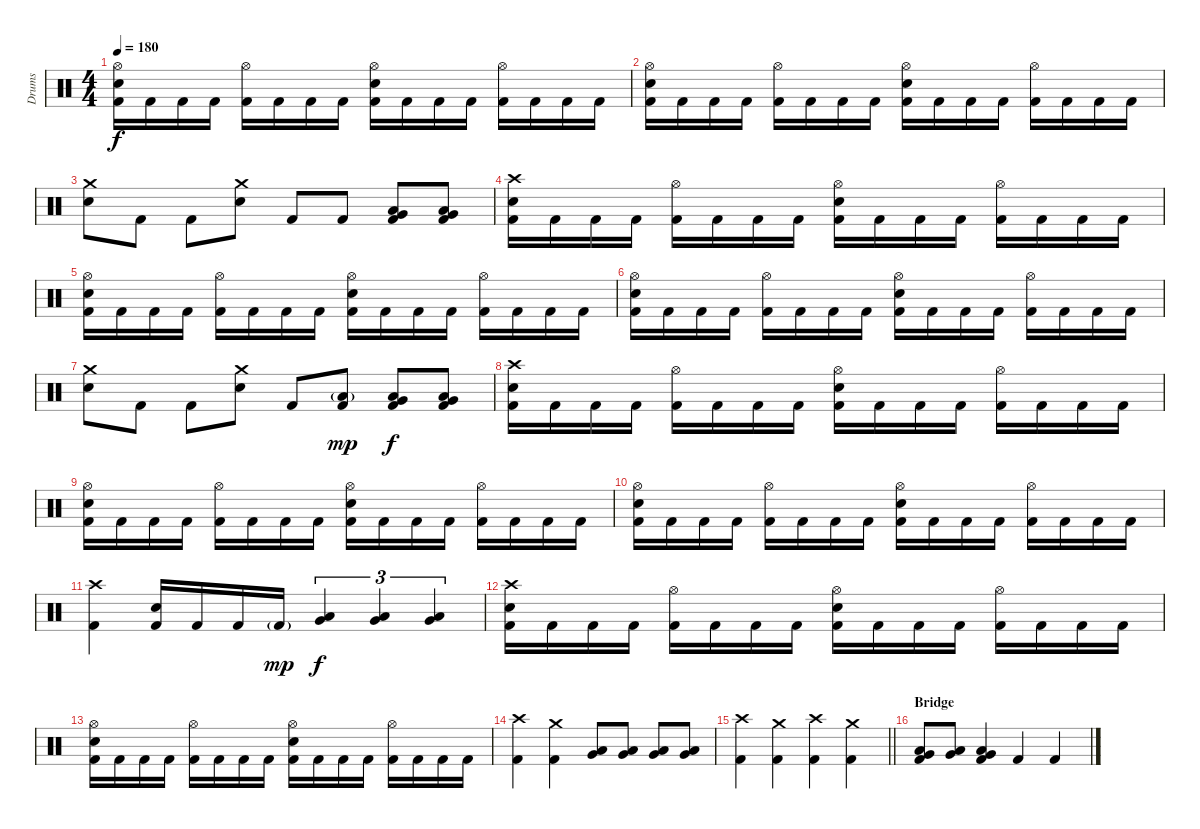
\track ("Drums" "Drums") {instrument percussion}
\staff {score}
\articulation defaults
\ts (4 4)
\tempo 180
\clef neutral
\ks c
("Hi-Hat (open)" "Electric Snare (hit)" "Kick (hit) 2").16{dy f} "Kick (hit) 2".16 "Kick (hit) 2".16 "Kick (hit) 2".16 ("Hi-Hat (open)" "Kick (hit) 2").16 "Kick (hit) 2".16 "Kick (hit) 2".16 "Kick (hit) 2".16 ("Hi-Hat (open)" "Electric Snare (hit)" "Kick (hit) 2").16 "Kick (hit) 2".16 "Kick (hit) 2".16 "Kick (hit) 2".16 ("Hi-Hat (open)" "Kick (hit) 2").16 "Kick (hit) 2".16 "Kick (hit) 2".16 "Kick (hit) 2".16 |
("Hi-Hat (open)" "Electric Snare (hit)" "Kick (hit) 2").16 "Kick (hit) 2".16 "Kick (hit) 2".16 "Kick (hit) 2".16 ("Hi-Hat (open)" "Kick (hit) 2").16 "Kick (hit) 2".16 "Kick (hit) 2".16 "Kick (hit) 2".16 ("Hi-Hat (open)" "Electric Snare (hit)" "Kick (hit) 2").16 "Kick (hit) 2".16 "Kick (hit) 2".16 "Kick (hit) 2".16 ("Hi-Hat (open)" "Kick (hit) 2").16 "Kick (hit) 2".16 "Kick (hit) 2".16 "Kick (hit) 2".16 |
("Crash medium (hit)" "Electric Snare (hit)").8 "Kick (hit) 2".8 "Kick (hit) 2".8 ("Crash medium (hit)" "Electric Snare (hit)").8 "Kick (hit) 2".8 "Kick (hit) 2".8 ("Low Tom (hit)" "Very Low Tom (hit)" "Kick (hit) 2").8 ("Very Low Tom (hit)" "Low Floor Tom (hit)" "Kick (hit) 2").8 |
("Crash high (hit)" "Electric Snare (hit)" "Kick (hit) 2").16 "Kick (hit) 2".16 "Kick (hit) 2".16 "Kick (hit) 2".16 ("Hi-Hat (open)" "Kick (hit) 2").16 "Kick (hit) 2".16 "Kick (hit) 2".16 "Kick (hit) 2".16 ("Hi-Hat (open)" "Electric Snare (hit)" "Kick (hit) 2").16 "Kick (hit) 2".16 "Kick (hit) 2".16 "Kick (hit) 2".16 ("Hi-Hat (open)" "Kick (hit) 2").16 "Kick (hit) 2".16 "Kick (hit) 2".16 "Kick (hit) 2".16 |
("Hi-Hat (open)" "Electric Snare (hit)" "Kick (hit) 2").16 "Kick (hit) 2".16 "Kick (hit) 2".16 "Kick (hit) 2".16 ("Hi-Hat (open)" "Kick (hit) 2").16 "Kick (hit) 2".16 "Kick (hit) 2".16 "Kick (hit) 2".16 ("Hi-Hat (open)" "Electric Snare (hit)" "Kick (hit) 2").16 "Kick (hit) 2".16 "Kick (hit) 2".16 "Kick (hit) 2".16 ("Hi-Hat (open)" "Kick (hit) 2").16 "Kick (hit) 2".16 "Kick (hit) 2".16 "Kick (hit) 2".16 |
("Hi-Hat (open)" "Electric Snare (hit)" "Kick (hit) 2").16 "Kick (hit) 2".16 "Kick (hit) 2".16 "Kick (hit) 2".16 ("Hi-Hat (open)" "Kick (hit) 2").16 "Kick (hit) 2".16 "Kick (hit) 2".16 "Kick (hit) 2".16 ("Hi-Hat (open)" "Electric Snare (hit)" "Kick (hit) 2").16 "Kick (hit) 2".16 "Kick (hit) 2".16 "Kick (hit) 2".16 ("Hi-Hat (open)" "Kick (hit) 2").16 "Kick (hit) 2".16 "Kick (hit) 2".16 "Kick (hit) 2".16 |
("Crash medium (hit)" "Electric Snare (hit)").8 "Kick (hit) 2".8 "Kick (hit) 2".8 ("Crash medium (hit)" "Electric Snare (hit)").8 "Kick (hit) 2".8 ("Low Tom (hit)"{g} "Kick (hit) 2").8{dy mp} ("Low Tom (hit)" "Very Low Tom (hit)" "Kick (hit) 2").8{dy f} ("Very Low Tom (hit)" "Low Floor Tom (hit)" "Kick (hit) 2").8 |
("Crash high (hit)" "Electric Snare (hit)" "Kick (hit) 2").16 "Kick (hit) 2".16 "Kick (hit) 2".16 "Kick (hit) 2".16 ("Hi-Hat (open)" "Kick (hit) 2").16 "Kick (hit) 2".16 "Kick (hit) 2".16 "Kick (hit) 2".16 ("Hi-Hat (open)" "Electric Snare (hit)" "Kick (hit) 2").16 "Kick (hit) 2".16 "Kick (hit) 2".16 "Kick (hit) 2".16 ("Hi-Hat (open)" "Kick (hit) 2").16 "Kick (hit) 2".16 "Kick (hit) 2".16 "Kick (hit) 2".16 |
("Hi-Hat (open)" "Electric Snare (hit)" "Kick (hit) 2").16 "Kick (hit) 2".16 "Kick (hit) 2".16 "Kick (hit) 2".16 ("Hi-Hat (open)" "Kick (hit) 2").16 "Kick (hit) 2".16 "Kick (hit) 2".16 "Kick (hit) 2".16 ("Hi-Hat (open)" "Electric Snare (hit)" "Kick (hit) 2").16 "Kick (hit) 2".16 "Kick (hit) 2".16 "Kick (hit) 2".16 ("Hi-Hat (open)" "Kick (hit) 2").16 "Kick (hit) 2".16 "Kick (hit) 2".16 "Kick (hit) 2".16 |
("Hi-Hat (open)" "Electric Snare (hit)" "Kick (hit) 2").16 "Kick (hit) 2".16 "Kick (hit) 2".16 "Kick (hit) 2".16 ("Hi-Hat (open)" "Kick (hit) 2").16 "Kick (hit) 2".16 "Kick (hit) 2".16 "Kick (hit) 2".16 ("Hi-Hat (open)" "Electric Snare (hit)" "Kick (hit) 2").16 "Kick (hit) 2".16 "Kick (hit) 2".16 "Kick (hit) 2".16 ("Hi-Hat (open)" "Kick (hit) 2").16 "Kick (hit) 2".16 "Kick (hit) 2".16 "Kick (hit) 2".16 |
("Crash high (hit)" "Kick (hit) 2").4 ("Electric Snare (hit)" "Kick (hit) 2").16 "Kick (hit) 2".16 "Kick (hit) 2".16 "Kick (hit) 2"{g}.16{dy mp} ("Low Tom (hit)" "Very Low Tom (hit)").4{tu (3 2) dy f} ("Low Tom (hit)" "Very Low Tom (hit)").4{tu (3 2)} ("Very Low Tom (hit)" "Low Floor Tom (hit)").4{tu (3 2)} |
("Crash high (hit)" "Electric Snare (hit)" "Kick (hit) 2").16 "Kick (hit) 2".16 "Kick (hit) 2".16 "Kick (hit) 2".16 ("Hi-Hat (open)" "Kick (hit) 2").16 "Kick (hit) 2".16 "Kick (hit) 2".16 "Kick (hit) 2".16 ("Hi-Hat (open)" "Electric Snare (hit)" "Kick (hit) 2").16 "Kick (hit) 2".16 "Kick (hit) 2".16 "Kick (hit) 2".16 ("Hi-Hat (open)" "Kick (hit) 2").16 "Kick (hit) 2".16 "Kick (hit) 2".16 "Kick (hit) 2".16 |
("Hi-Hat (open)" "Electric Snare (hit)" "Kick (hit) 2").16 "Kick (hit) 2".16 "Kick (hit) 2".16 "Kick (hit) 2".16 ("Hi-Hat (open)" "Kick (hit) 2").16 "Kick (hit) 2".16 "Kick (hit) 2".16 "Kick (hit) 2".16 ("Hi-Hat (open)" "Electric Snare (hit)" "Kick (hit) 2").16 "Kick (hit) 2".16 "Kick (hit) 2".16 "Kick (hit) 2".16 ("Hi-Hat (open)" "Kick (hit) 2").16 "Kick (hit) 2".16 "Kick (hit) 2".16 "Kick (hit) 2".16 |
("Crash high (hit)" "Kick (hit) 2").4 ("Crash medium (hit)" "Kick (hit) 2").4 ("Low Tom (hit)" "Very Low Tom (hit)").8 ("Low Tom (hit)" "Very Low Tom (hit)").8 ("Low Tom (hit)" "Very Low Tom (hit)").8 ("Low Tom (hit)" "Very Low Tom (hit)").8 |
\barLineRight lightlight
("Crash high (hit)" "Kick (hit) 2").4 ("Crash medium (hit)" "Kick (hit) 2").4 ("Crash high (hit)" "Kick (hit) 2").4 ("Crash medium (hit)" "Kick (hit) 2").4 |
\section ("" "Bridge")
("Very Low Tom (hit)" "Low Floor Tom (hit)" "Kick (hit) 2").8 ("Very Low Tom (hit)" "Low Floor Tom (hit)").8 ("Very Low Tom (hit)" "Low Floor Tom (hit)" "Kick (hit) 2").4 "Kick (hit) 2".4 "Kick (hit) 2".4
